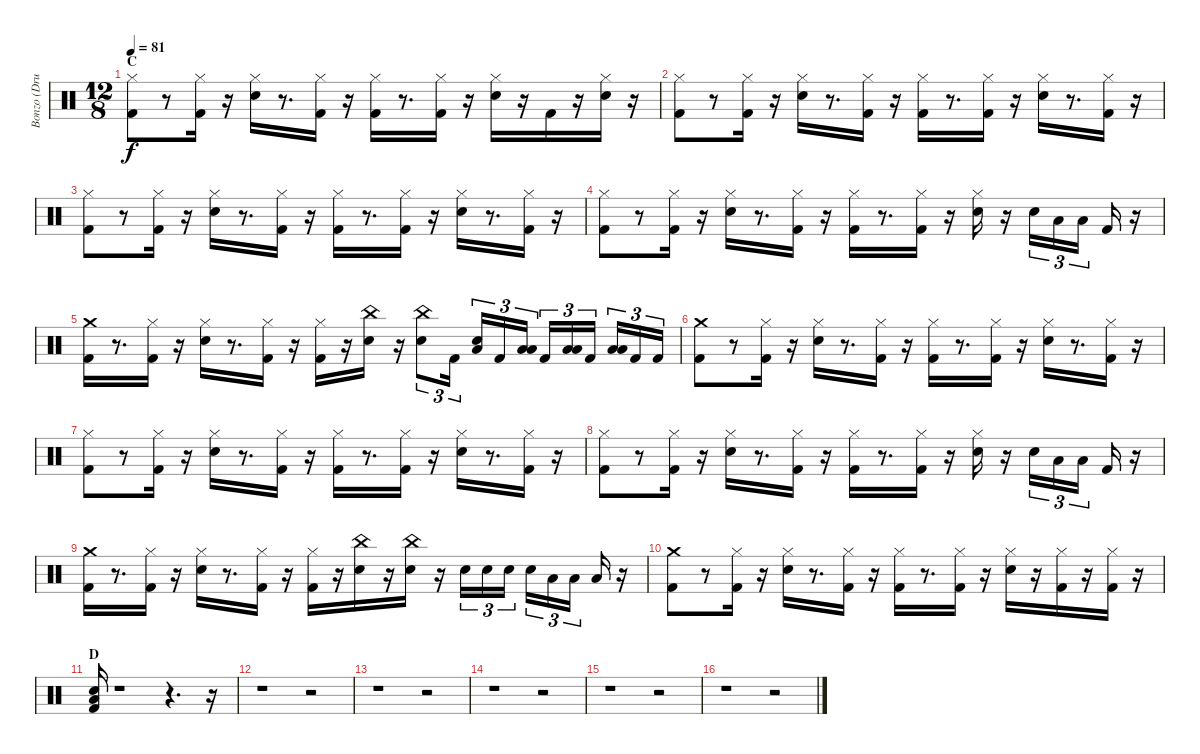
\track ("Bonzo (Drums)" "Bonzo (Dru") {instrument percussion}
\staff {score}
\articulation defaults
\ts (12 8)
\section ("" "C")
\tempo 81
\clef neutral
\ks c
("Kick (hit) 2" "Hi-Hat (closed)").8{dy f} r.8 ("Kick (hit) 2" "Hi-Hat (closed)").16 r.16 ("Hi-Hat (closed)" "Electric Snare (hit)").16 r.8{d} ("Hi-Hat (closed)" "Kick (hit) 2").16 r.16 ("Hi-Hat (closed)" "Kick (hit) 2").16 r.8{d} ("Hi-Hat (closed)" "Kick (hit) 2").16 r.16 ("Hi-Hat (closed)" "Electric Snare (hit)").16 r.16 "Kick (hit) 2".16 r.16 ("Hi-Hat (closed)" "Electric Snare (hit)").16 r.16 |
("Kick (hit) 2" "Hi-Hat (closed)").8 r.8 ("Kick (hit) 2" "Hi-Hat (closed)").16 r.16 ("Hi-Hat (closed)" "Electric Snare (hit)").16 r.8{d} ("Hi-Hat (closed)" "Kick (hit) 2").16 r.16 ("Hi-Hat (closed)" "Kick (hit) 2").16 r.8{d} ("Hi-Hat (closed)" "Kick (hit) 2").16 r.16 ("Hi-Hat (closed)" "Electric Snare (hit)").16 r.8{d} ("Hi-Hat (closed)" "Kick (hit) 2").16 r.16 |
("Kick (hit) 2" "Hi-Hat (closed)").8 r.8 ("Kick (hit) 2" "Hi-Hat (closed)").16 r.16 ("Hi-Hat (closed)" "Electric Snare (hit)").16 r.8{d} ("Hi-Hat (closed)" "Kick (hit) 2").16 r.16 ("Hi-Hat (closed)" "Kick (hit) 2").16 r.8{d} ("Hi-Hat (closed)" "Kick (hit) 2").16 r.16 ("Hi-Hat (closed)" "Electric Snare (hit)").16 r.8{d} ("Hi-Hat (closed)" "Kick (hit) 2").16 r.16 |
("Kick (hit) 2" "Hi-Hat (closed)").8 r.8 ("Kick (hit) 2" "Hi-Hat (closed)").16 r.16 ("Hi-Hat (closed)" "Electric Snare (hit)").16 r.8{d} ("Hi-Hat (closed)" "Kick (hit) 2").16 r.16 ("Hi-Hat (closed)" "Kick (hit) 2").16 r.8{d} ("Hi-Hat (closed)" "Kick (hit) 2").16 r.16 ("Hi-Hat (closed)" "Electric Snare (hit)").16 r.16 "Electric Snare (hit)".16{tu (3 2)} "Low Tom (hit)".16{tu (3 2)} "Low Floor Tom (hit)".16{tu (3 2)} "Kick (hit) 2".16 r.16 |
("Crash medium (hit)" "Kick (hit) 2").16 r.8{d} ("Hi-Hat (closed)" "Kick (hit) 2").16 r.16 ("Hi-Hat (closed)" "Electric Snare (hit)").16 r.8{d} ("Hi-Hat (closed)" "Kick (hit) 2").16 r.16 ("Hi-Hat (closed)" "Kick (hit) 2").16 r.16 ("China (hit)" "Electric Snare (hit)").16 r.16 ("China (hit)" "Electric Snare (hit)").8{tu (3 2)} "Kick (hit) 2".16{tu (3 2)} ("Electric Snare (hit)" "Low Tom (hit)").16{tu (3 2)} "Kick (hit) 2".16{tu (3 2)} ("Low Tom (hit)" "Low Floor Tom (hit)").16{tu (3 2)} "Kick (hit) 2".16{tu (3 2)} ("Low Tom (hit)" "Low Floor Tom (hit)").16{tu (3 2)} "Kick (hit) 2".16{tu (3 2)} ("Low Tom (hit)" "Low Floor Tom (hit)").16{tu (3 2)} "Kick (hit) 2".16{tu (3 2)} "Kick (hit) 2".16{tu (3 2)} |
("Kick (hit) 2" "Crash medium (hit)").8 r.8 ("Kick (hit) 2" "Hi-Hat (closed)").16 r.16 ("Hi-Hat (closed)" "Electric Snare (hit)").16 r.8{d} ("Hi-Hat (closed)" "Kick (hit) 2").16 r.16 ("Hi-Hat (closed)" "Kick (hit) 2").16 r.8{d} ("Hi-Hat (closed)" "Kick (hit) 2").16 r.16 ("Hi-Hat (closed)" "Electric Snare (hit)").16 r.8{d} ("Hi-Hat (closed)" "Kick (hit) 2").16 r.16 |
("Kick (hit) 2" "Hi-Hat (closed)").8 r.8 ("Kick (hit) 2" "Hi-Hat (closed)").16 r.16 ("Hi-Hat (closed)" "Electric Snare (hit)").16 r.8{d} ("Hi-Hat (closed)" "Kick (hit) 2").16 r.16 ("Hi-Hat (closed)" "Kick (hit) 2").16 r.8{d} ("Hi-Hat (closed)" "Kick (hit) 2").16 r.16 ("Hi-Hat (closed)" "Electric Snare (hit)").16 r.8{d} ("Hi-Hat (closed)" "Kick (hit) 2").16 r.16 |
("Kick (hit) 2" "Hi-Hat (closed)").8 r.8 ("Kick (hit) 2" "Hi-Hat (closed)").16 r.16 ("Hi-Hat (closed)" "Electric Snare (hit)").16 r.8{d} ("Hi-Hat (closed)" "Kick (hit) 2").16 r.16 ("Hi-Hat (closed)" "Kick (hit) 2").16 r.8{d} ("Hi-Hat (closed)" "Kick (hit) 2").16 r.16 ("Hi-Hat (closed)" "Electric Snare (hit)").16 r.16 "Electric Snare (hit)".16{tu (3 2)} "Low Tom (hit)".16{tu (3 2)} "Low Floor Tom (hit)".16{tu (3 2)} "Kick (hit) 2".16 r.16 |
("Crash medium (hit)" "Kick (hit) 2").16 r.8{d} ("Hi-Hat (closed)" "Kick (hit) 2").16 r.16 ("Hi-Hat (closed)" "Electric Snare (hit)").16 r.8{d} ("Hi-Hat (closed)" "Kick (hit) 2").16 r.16 ("Hi-Hat (closed)" "Kick (hit) 2").16 r.16 ("China (hit)" "Electric Snare (hit)").16 r.16 ("China (hit)" "Electric Snare (hit)").16 r.16 "Electric Snare (hit)".16{tu (3 2)} "Electric Snare (hit)".16{tu (3 2)} "Electric Snare (hit)".16{tu (3 2)} "Electric Snare (hit)".16{tu (3 2)} "Low Tom (hit)".16{tu (3 2)} "Low Tom (hit)".16{tu (3 2)} "Low Floor Tom (hit)".16 r.16 |
("Kick (hit) 2" "Crash medium (hit)").8 r.8 ("Kick (hit) 2" "Hi-Hat (closed)").16 r.16 ("Hi-Hat (closed)" "Electric Snare (hit)").16 r.8{d} ("Hi-Hat (closed)" "Kick (hit) 2").16 r.16 ("Hi-Hat (closed)" "Kick (hit) 2").16 r.8{d} ("Hi-Hat (closed)" "Kick (hit) 2").16 r.16 ("Hi-Hat (closed)" "Electric Snare (hit)").16 r.16 ("Kick (hit) 2" "Hi-Hat (closed)").16 r.16 ("Hi-Hat (closed)" "Kick (hit) 2").16 r.16 |
\section ("" "D")
("Kick (hit) 2" "Electric Snare (hit)" "Low Tom (hit)").16 r.1 r.4{d} r.16 |
r.1 r.2 |
r.1 r.2 |
r.1 r.2 |
r.1 r.2 |
r.1 r.2
